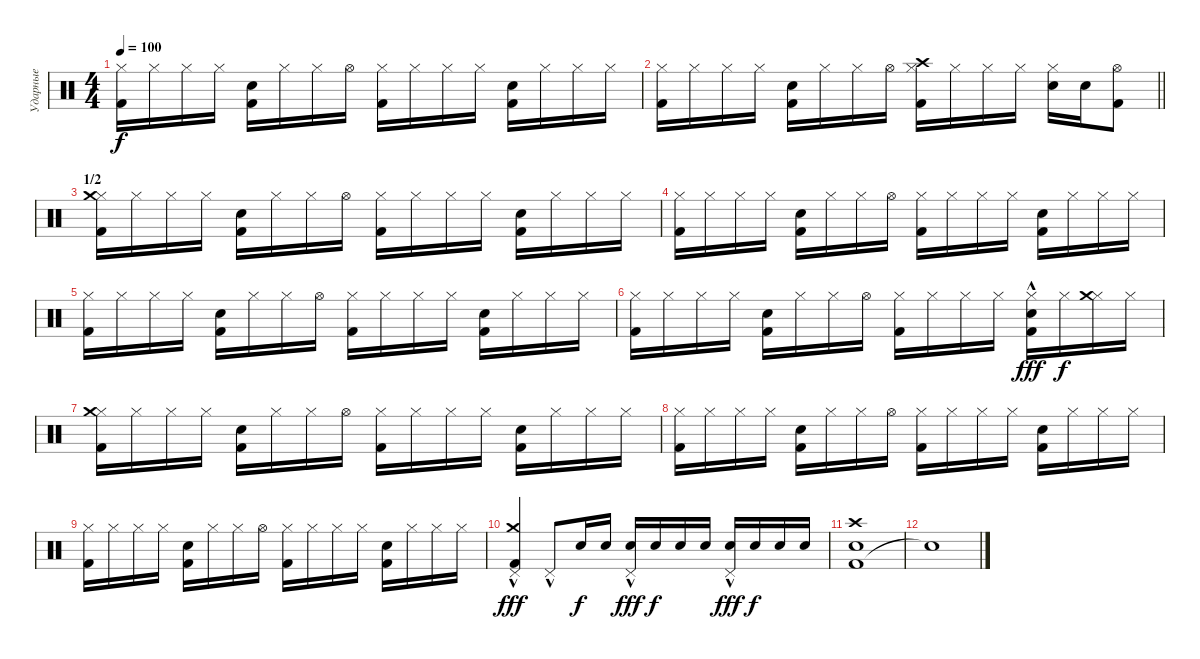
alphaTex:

\track ("Ударные" "Ударные") {instrument percussion}
\staff {score}
\articulation defaults
\ts (4 4)
\tempo 100
\clef neutral
\ks c
("Kick (hit) 2" "Hi-Hat (closed)").16{dy f} "Hi-Hat (closed)".16 "Hi-Hat (closed)".16 "Hi-Hat (closed)".16 ("Kick (hit) 2" "Snare (hit) 2").16 "Hi-Hat (closed)".16 "Hi-Hat (closed)".16 "Hi-Hat (open)".16 ("Kick (hit) 2" "Hi-Hat (closed)").16 "Hi-Hat (closed)".16 "Hi-Hat (closed)".16 "Hi-Hat (closed)".16 ("Kick (hit) 2" "Snare (hit) 2").16 "Hi-Hat (closed)".16 "Hi-Hat (closed)".16 "Hi-Hat (closed)".16 |
\barLineRight lightlight
("Kick (hit) 2" "Hi-Hat (closed)").16 "Hi-Hat (closed)".16 "Hi-Hat (closed)".16 "Hi-Hat (closed)".16 ("Kick (hit) 2" "Snare (hit) 2").16 "Hi-Hat (closed)".16 "Hi-Hat (closed)".16 "Hi-Hat (open)".16 ("Kick (hit) 2" "Hi-Hat (closed)" "Crash high (hit)").16 "Hi-Hat (closed)".16 "Hi-Hat (closed)".16 "Hi-Hat (closed)".16 ("Snare (hit) 2" "Hi-Hat (closed)").16 "Snare (hit) 2".16 ("Kick (hit) 2" "Hi-Hat (open)").8 |
\section ("" "1/2")
("Kick (hit) 2" "Hi-Hat (closed)" "Crash medium (hit)").16 "Hi-Hat (closed)".16 "Hi-Hat (closed)".16 "Hi-Hat (closed)".16 ("Kick (hit) 2" "Snare (hit) 2").16 "Hi-Hat (closed)".16 "Hi-Hat (closed)".16 "Hi-Hat (open)".16 ("Kick (hit) 2" "Hi-Hat (closed)").16 "Hi-Hat (closed)".16 "Hi-Hat (closed)".16 "Hi-Hat (closed)".16 ("Kick (hit) 2" "Snare (hit) 2").16 "Hi-Hat (closed)".16 "Hi-Hat (closed)".16 "Hi-Hat (closed)".16 |
("Kick (hit) 2" "Hi-Hat (closed)").16 "Hi-Hat (closed)".16 "Hi-Hat (closed)".16 "Hi-Hat (closed)".16 ("Kick (hit) 2" "Snare (hit) 2").16 "Hi-Hat (closed)".16 "Hi-Hat (closed)".16 "Hi-Hat (open)".16 ("Kick (hit) 2" "Hi-Hat (closed)").16 "Hi-Hat (closed)".16 "Hi-Hat (closed)".16 "Hi-Hat (closed)".16 ("Kick (hit) 2" "Snare (hit) 2").16 "Hi-Hat (closed)".16 "Hi-Hat (closed)".16 "Hi-Hat (closed)".16 |
("Kick (hit) 2" "Hi-Hat (closed)").16 "Hi-Hat (closed)".16 "Hi-Hat (closed)".16 "Hi-Hat (closed)".16 ("Kick (hit) 2" "Snare (hit) 2").16 "Hi-Hat (closed)".16 "Hi-Hat (closed)".16 "Hi-Hat (open)".16 ("Kick (hit) 2" "Hi-Hat (closed)").16 "Hi-Hat (closed)".16 "Hi-Hat (closed)".16 "Hi-Hat (closed)".16 ("Kick (hit) 2" "Snare (hit) 2").16 "Hi-Hat (closed)".16 "Hi-Hat (closed)".16 "Hi-Hat (closed)".16 |
("Kick (hit) 2" "Hi-Hat (closed)").16 "Hi-Hat (closed)".16 "Hi-Hat (closed)".16 "Hi-Hat (closed)".16 ("Kick (hit) 2" "Snare (hit) 2").16 "Hi-Hat (closed)".16 "Hi-Hat (closed)".16 "Hi-Hat (open)".16 ("Kick (hit) 2" "Hi-Hat (closed)").16 "Hi-Hat (closed)".16 "Hi-Hat (closed)".16 "Hi-Hat (closed)".16 ("Kick (hit) 2" "Snare (hit) 2" "Hi-Hat (closed)"{hac}).16{dy fff} "Hi-Hat (closed)".16{dy f} ("Hi-Hat (closed)" "Crash medium (hit)").16 "Hi-Hat (closed)".16 |
("Kick (hit) 2" "Hi-Hat (closed)" "Crash medium (hit)").16 "Hi-Hat (closed)".16 "Hi-Hat (closed)".16 "Hi-Hat (closed)".16 ("Kick (hit) 2" "Snare (hit) 2").16 "Hi-Hat (closed)".16 "Hi-Hat (closed)".16 "Hi-Hat (open)".16 ("Kick (hit) 2" "Hi-Hat (closed)").16 "Hi-Hat (closed)".16 "Hi-Hat (closed)".16 "Hi-Hat (closed)".16 ("Kick (hit) 2" "Snare (hit) 2").16 "Hi-Hat (closed)".16 "Hi-Hat (closed)".16 "Hi-Hat (closed)".16 |
("Kick (hit) 2" "Hi-Hat (closed)").16 "Hi-Hat (closed)".16 "Hi-Hat (closed)".16 "Hi-Hat (closed)".16 ("Kick (hit) 2" "Snare (hit) 2").16 "Hi-Hat (closed)".16 "Hi-Hat (closed)".16 "Hi-Hat (open)".16 ("Kick (hit) 2" "Hi-Hat (closed)").16 "Hi-Hat (closed)".16 "Hi-Hat (closed)".16 "Hi-Hat (closed)".16 ("Kick (hit) 2" "Snare (hit) 2").16 "Hi-Hat (closed)".16 "Hi-Hat (closed)".16 "Hi-Hat (closed)".16 |
("Kick (hit) 2" "Hi-Hat (closed)").16 "Hi-Hat (closed)".16 "Hi-Hat (closed)".16 "Hi-Hat (closed)".16 ("Kick (hit) 2" "Snare (hit) 2").16 "Hi-Hat (closed)".16 "Hi-Hat (closed)".16 "Hi-Hat (open)".16 ("Kick (hit) 2" "Hi-Hat (closed)").16 "Hi-Hat (closed)".16 "Hi-Hat (closed)".16 "Hi-Hat (closed)".16 ("Kick (hit) 2" "Snare (hit) 2").16 "Hi-Hat (closed)".16 "Hi-Hat (closed)".16 "Hi-Hat (closed)".16 |
("Kick (hit) 2" "Pedal Hi-Hat (hit)"{hac} "Crash medium (hit)").4{dy fff} "Pedal Hi-Hat (hit)"{hac}.8 "Snare (hit) 2".16{dy f} "Snare (hit) 2".16 ("Snare (hit) 2" "Pedal Hi-Hat (hit)"{hac}).16{dy fff} "Snare (hit) 2".16{dy f} "Snare (hit) 2".16 "Snare (hit) 2".16 ("Snare (hit) 2" "Pedal Hi-Hat (hit)"{hac}).16{dy fff} "Snare (hit) 2".16{dy f} "Snare (hit) 2".16 "Snare (hit) 2".16 |
("Kick (hit) 2" "Snare (hit) 2" "Crash high (hit)").1 |
"Snare (hit)"{t}.1
